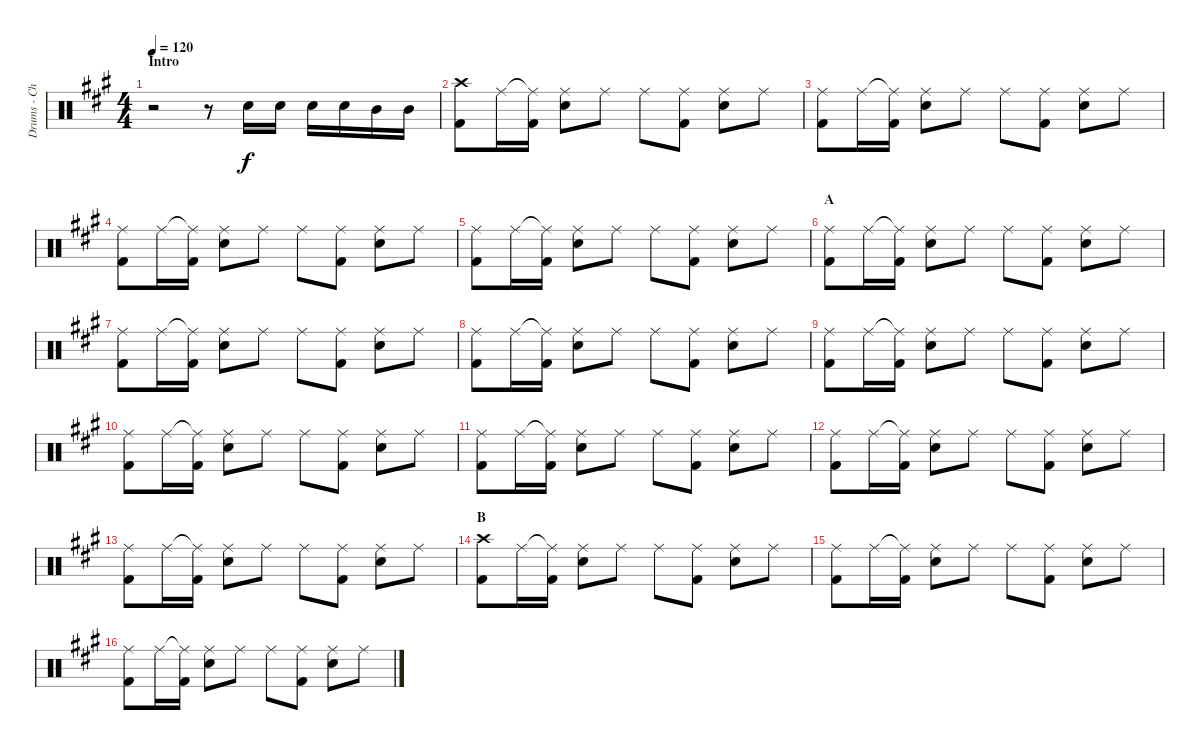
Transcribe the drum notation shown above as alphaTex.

\track ("Drums - Chad S" "Drums - Ch") {instrument percussion}
\staff {score}
\articulation defaults
\ts (4 4)
\section ("" "Intro")
\tempo 120
\clef neutral
\ks f#minor
r.2{dy f} r.8 "Snare (hit) 2".16 "Snare (hit) 2".16 "Snare (hit) 2".16 "Snare (hit) 2".16 "Mid Tom (hit)".16 "Mid Tom (hit)".16 |
("Crash high (hit)" "Kick (hit) 2").8 "Ride (middle)".16 ("Ride (middle)"{t} "Kick (hit) 2").16 ("Ride (middle)" "Snare (hit) 2").8 "Ride (middle)".8 "Ride (middle)".8 ("Ride (middle)" "Kick (hit) 2").8 ("Ride (middle)" "Snare (hit) 2").8 "Ride (middle)".8 |
("Ride (middle)" "Kick (hit) 2").8 "Ride (middle)".16 ("Ride (middle)"{t} "Kick (hit) 2").16 ("Ride (middle)" "Snare (hit) 2").8 "Ride (middle)".8 "Ride (middle)".8 ("Ride (middle)" "Kick (hit) 2").8 ("Ride (middle)" "Snare (hit) 2").8 "Ride (middle)".8 |
("Ride (middle)" "Kick (hit) 2").8 "Ride (middle)".16 ("Ride (middle)"{t} "Kick (hit) 2").16 ("Ride (middle)" "Snare (hit) 2").8 "Ride (middle)".8 "Ride (middle)".8 ("Ride (middle)" "Kick (hit) 2").8 ("Ride (middle)" "Snare (hit) 2").8 "Ride (middle)".8 |
("Ride (middle)" "Kick (hit) 2").8 "Ride (middle)".16 ("Ride (middle)"{t} "Kick (hit) 2").16 ("Ride (middle)" "Snare (hit) 2").8 "Ride (middle)".8 "Ride (middle)".8 ("Ride (middle)" "Kick (hit) 2").8 ("Ride (middle)" "Snare (hit) 2").8 "Ride (middle)".8 |
\section ("" "A")
("Ride (middle)" "Kick (hit) 2").8 "Ride (middle)".16 ("Ride (middle)"{t} "Kick (hit) 2").16 ("Ride (middle)" "Snare (hit) 2").8 "Ride (middle)".8 "Ride (middle)".8 ("Ride (middle)" "Kick (hit) 2").8 ("Ride (middle)" "Snare (hit) 2").8 "Ride (middle)".8 |
("Ride (middle)" "Kick (hit) 2").8 "Ride (middle)".16 ("Ride (middle)"{t} "Kick (hit) 2").16 ("Ride (middle)" "Snare (hit) 2").8 "Ride (middle)".8 "Ride (middle)".8 ("Ride (middle)" "Kick (hit) 2").8 ("Ride (middle)" "Snare (hit) 2").8 "Ride (middle)".8 |
("Ride (middle)" "Kick (hit) 2").8 "Ride (middle)".16 ("Ride (middle)"{t} "Kick (hit) 2").16 ("Ride (middle)" "Snare (hit) 2").8 "Ride (middle)".8 "Ride (middle)".8 ("Ride (middle)" "Kick (hit) 2").8 ("Ride (middle)" "Snare (hit) 2").8 "Ride (middle)".8 |
("Ride (middle)" "Kick (hit) 2").8 "Ride (middle)".16 ("Ride (middle)"{t} "Kick (hit) 2").16 ("Ride (middle)" "Snare (hit) 2").8 "Ride (middle)".8 "Ride (middle)".8 ("Ride (middle)" "Kick (hit) 2").8 ("Ride (middle)" "Snare (hit) 2").8 "Ride (middle)".8 |
("Ride (middle)" "Kick (hit) 2").8 "Ride (middle)".16 ("Ride (middle)"{t} "Kick (hit) 2").16 ("Ride (middle)" "Snare (hit) 2").8 "Ride (middle)".8 "Ride (middle)".8 ("Ride (middle)" "Kick (hit) 2").8 ("Ride (middle)" "Snare (hit) 2").8 "Ride (middle)".8 |
("Ride (middle)" "Kick (hit) 2").8 "Ride (middle)".16 ("Ride (middle)"{t} "Kick (hit) 2").16 ("Ride (middle)" "Snare (hit) 2").8 "Ride (middle)".8 "Ride (middle)".8 ("Ride (middle)" "Kick (hit) 2").8 ("Ride (middle)" "Snare (hit) 2").8 "Ride (middle)".8 |
("Ride (middle)" "Kick (hit) 2").8 "Ride (middle)".16 ("Ride (middle)"{t} "Kick (hit) 2").16 ("Ride (middle)" "Snare (hit) 2").8 "Ride (middle)".8 "Ride (middle)".8 ("Ride (middle)" "Kick (hit) 2").8 ("Ride (middle)" "Snare (hit) 2").8 "Ride (middle)".8 |
("Ride (middle)" "Kick (hit) 2").8 "Ride (middle)".16 ("Ride (middle)"{t} "Kick (hit) 2").16 ("Ride (middle)" "Snare (hit) 2").8 "Ride (middle)".8 "Ride (middle)".8 ("Ride (middle)" "Kick (hit) 2").8 ("Ride (middle)" "Snare (hit) 2").8 "Ride (middle)".8 |
\section ("" "B")
("Crash high (hit)" "Kick (hit) 2").8 "Ride (middle)".16 ("Ride (middle)"{t} "Kick (hit) 2").16 ("Ride (middle)" "Snare (hit) 2").8 "Ride (middle)".8 "Ride (middle)".8 ("Ride (middle)" "Kick (hit) 2").8 ("Ride (middle)" "Snare (hit) 2").8 "Ride (middle)".8 |
("Ride (middle)" "Kick (hit) 2").8 "Ride (middle)".16 ("Ride (middle)"{t} "Kick (hit) 2").16 ("Ride (middle)" "Snare (hit) 2").8 "Ride (middle)".8 "Ride (middle)".8 ("Ride (middle)" "Kick (hit) 2").8 ("Ride (middle)" "Snare (hit) 2").8 "Ride (middle)".8 |
("Ride (middle)" "Kick (hit) 2").8 "Ride (middle)".16 ("Ride (middle)"{t} "Kick (hit) 2").16 ("Ride (middle)" "Snare (hit) 2").8 "Ride (middle)".8 "Ride (middle)".8 ("Ride (middle)" "Kick (hit) 2").8 ("Ride (middle)" "Snare (hit) 2").8 "Ride (middle)".8
